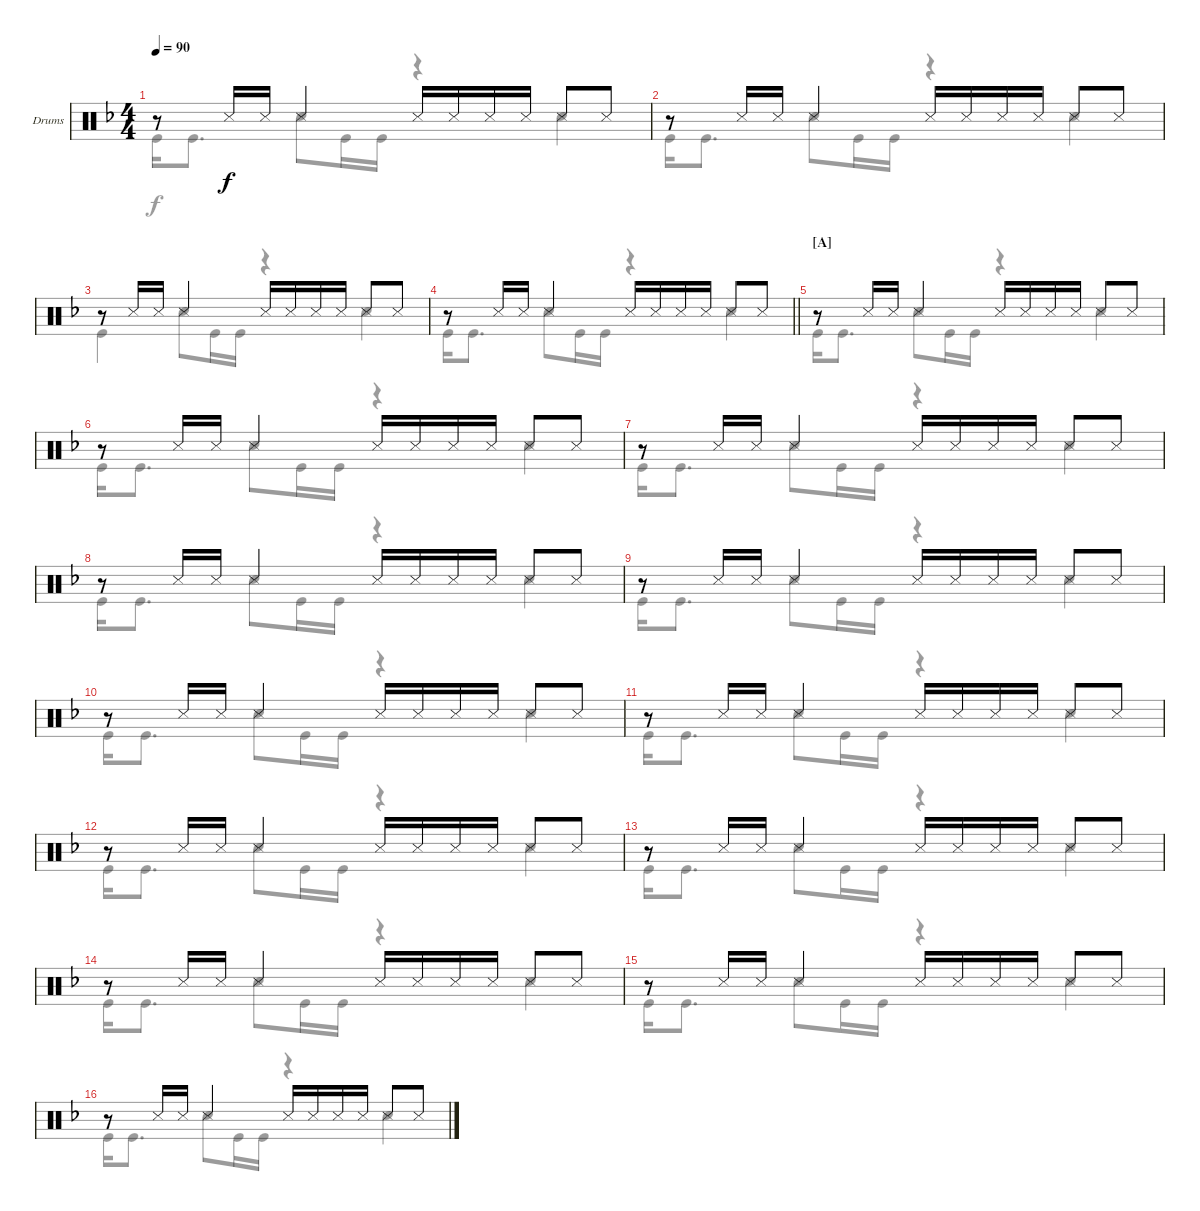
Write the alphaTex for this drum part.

\bracketExtendMode groupsimilarinstruments
\firstSystemTrackNameOrientation horizontal
\otherSystemsTrackNameOrientation horizontal
\track ("Drumkit" "Drums") {instrument percussion}
\staff {score}
\articulation defaults
\voice
\ts (4 4)
\tempo 90
\clef neutral
\ks f
r.8{dy f} "Snare (side stick) 3".16 "Snare (side stick) 3".16 "Snare (side stick) 3".4 "Snare (side stick) 3".16 "Snare (side stick) 3".16 "Snare (side stick) 3".16 "Snare (side stick) 3".16 "Snare (side stick) 3".8 "Snare (side stick) 3".8 |
r.8 "Snare (side stick) 3".16 "Snare (side stick) 3".16 "Snare (side stick) 3".4 "Snare (side stick) 3".16 "Snare (side stick) 3".16 "Snare (side stick) 3".16 "Snare (side stick) 3".16 "Snare (side stick) 3".8 "Snare (side stick) 3".8 |
r.8 "Snare (side stick) 3".16 "Snare (side stick) 3".16 "Snare (side stick) 3".4 "Snare (side stick) 3".16 "Snare (side stick) 3".16 "Snare (side stick) 3".16 "Snare (side stick) 3".16 "Snare (side stick) 3".8 "Snare (side stick) 3".8 |
\barLineRight lightlight
r.8 "Snare (side stick) 3".16 "Snare (side stick) 3".16 "Snare (side stick) 3".4 "Snare (side stick) 3".16 "Snare (side stick) 3".16 "Snare (side stick) 3".16 "Snare (side stick) 3".16 "Snare (side stick) 3".8 "Snare (side stick) 3".8 |
\section ("A" "")
r.8 "Snare (side stick) 3".16 "Snare (side stick) 3".16 "Snare (side stick) 3".4 "Snare (side stick) 3".16 "Snare (side stick) 3".16 "Snare (side stick) 3".16 "Snare (side stick) 3".16 "Snare (side stick) 3".8 "Snare (side stick) 3".8 |
r.8 "Snare (side stick) 3".16 "Snare (side stick) 3".16 "Snare (side stick) 3".4 "Snare (side stick) 3".16 "Snare (side stick) 3".16 "Snare (side stick) 3".16 "Snare (side stick) 3".16 "Snare (side stick) 3".8 "Snare (side stick) 3".8 |
r.8 "Snare (side stick) 3".16 "Snare (side stick) 3".16 "Snare (side stick) 3".4 "Snare (side stick) 3".16 "Snare (side stick) 3".16 "Snare (side stick) 3".16 "Snare (side stick) 3".16 "Snare (side stick) 3".8 "Snare (side stick) 3".8 |
r.8 "Snare (side stick) 3".16 "Snare (side stick) 3".16 "Snare (side stick) 3".4 "Snare (side stick) 3".16 "Snare (side stick) 3".16 "Snare (side stick) 3".16 "Snare (side stick) 3".16 "Snare (side stick) 3".8 "Snare (side stick) 3".8 |
r.8 "Snare (side stick) 3".16 "Snare (side stick) 3".16 "Snare (side stick) 3".4 "Snare (side stick) 3".16 "Snare (side stick) 3".16 "Snare (side stick) 3".16 "Snare (side stick) 3".16 "Snare (side stick) 3".8 "Snare (side stick) 3".8 |
r.8 "Snare (side stick) 3".16 "Snare (side stick) 3".16 "Snare (side stick) 3".4 "Snare (side stick) 3".16 "Snare (side stick) 3".16 "Snare (side stick) 3".16 "Snare (side stick) 3".16 "Snare (side stick) 3".8 "Snare (side stick) 3".8 |
r.8 "Snare (side stick) 3".16 "Snare (side stick) 3".16 "Snare (side stick) 3".4 "Snare (side stick) 3".16 "Snare (side stick) 3".16 "Snare (side stick) 3".16 "Snare (side stick) 3".16 "Snare (side stick) 3".8 "Snare (side stick) 3".8 |
r.8 "Snare (side stick) 3".16 "Snare (side stick) 3".16 "Snare (side stick) 3".4 "Snare (side stick) 3".16 "Snare (side stick) 3".16 "Snare (side stick) 3".16 "Snare (side stick) 3".16 "Snare (side stick) 3".8 "Snare (side stick) 3".8 |
r.8 "Snare (side stick) 3".16 "Snare (side stick) 3".16 "Snare (side stick) 3".4 "Snare (side stick) 3".16 "Snare (side stick) 3".16 "Snare (side stick) 3".16 "Snare (side stick) 3".16 "Snare (side stick) 3".8 "Snare (side stick) 3".8 |
r.8 "Snare (side stick) 3".16 "Snare (side stick) 3".16 "Snare (side stick) 3".4 "Snare (side stick) 3".16 "Snare (side stick) 3".16 "Snare (side stick) 3".16 "Snare (side stick) 3".16 "Snare (side stick) 3".8 "Snare (side stick) 3".8 |
r.8 "Snare (side stick) 3".16 "Snare (side stick) 3".16 "Snare (side stick) 3".4 "Snare (side stick) 3".16 "Snare (side stick) 3".16 "Snare (side stick) 3".16 "Snare (side stick) 3".16 "Snare (side stick) 3".8 "Snare (side stick) 3".8 |
r.8 "Snare (side stick) 3".16 "Snare (side stick) 3".16 "Snare (side stick) 3".4 "Snare (side stick) 3".16 "Snare (side stick) 3".16 "Snare (side stick) 3".16 "Snare (side stick) 3".16 "Snare (side stick) 3".8 "Snare (side stick) 3".8
\voice
\clef neutral
\ottava regular
\simile none
\ks f "Kick (hit)".16{dy f} "Kick (hit)".8{d} "Snare (hit) 2".8 "Kick (hit)".16 "Kick (hit)".16
r.4 "Snare (hit) 2".4 |
"Kick (hit)".16 "Kick (hit)".8{d} "Snare (hit) 2".8 "Kick (hit)".16 "Kick (hit)".16 r.4 "Snare (hit) 2".4 |
"Kick (hit)".4 "Snare (hit) 2".8 "Kick (hit)".16 "Kick (hit)".16 r.4 "Snare (hit) 2".4 |
\barLineRight lightlight "Kick (hit)".16 "Kick (hit)".8{d} "Snare (hit) 2".8 "Kick (hit)".16 "Kick (hit)".16
r.4 "Snare (hit) 2".4 |
"Kick (hit)".16 "Kick (hit)".8{d} "Snare (hit) 2".8 "Kick (hit)".16 "Kick (hit)".16 r.4 "Snare (hit) 2".4 |
"Kick (hit)".16 "Kick (hit)".8{d} "Snare (hit) 2".8 "Kick (hit)".16 "Kick (hit)".16 r.4 "Snare (hit) 2".4 |
"Kick (hit)".16 "Kick (hit)".8{d} "Snare (hit) 2".8 "Kick (hit)".16 "Kick (hit)".16 r.4 "Snare (hit) 2".4 |
"Kick (hit)".16 "Kick (hit)".8{d} "Snare (hit) 2".8 "Kick (hit)".16 "Kick (hit)".16 r.4 "Snare (hit) 2".4 |
"Kick (hit)".16 "Kick (hit)".8{d} "Snare (hit) 2".8 "Kick (hit)".16 "Kick (hit)".16 r.4 "Snare (hit) 2".4 |
"Kick (hit)".16 "Kick (hit)".8{d} "Snare (hit) 2".8 "Kick (hit)".16 "Kick (hit)".16 r.4 "Snare (hit) 2".4 |
"Kick (hit)".16 "Kick (hit)".8{d} "Snare (hit) 2".8 "Kick (hit)".16 "Kick (hit)".16 r.4 "Snare (hit) 2".4 |
"Kick (hit)".16 "Kick (hit)".8{d} "Snare (hit) 2".8 "Kick (hit)".16 "Kick (hit)".16 r.4 "Snare (hit) 2".4 |
"Kick (hit)".16 "Kick (hit)".8{d} "Snare (hit) 2".8 "Kick (hit)".16 "Kick (hit)".16 r.4 "Snare (hit) 2".4 |
"Kick (hit)".16 "Kick (hit)".8{d} "Snare (hit) 2".8 "Kick (hit)".16 "Kick (hit)".16 r.4 "Snare (hit) 2".4 |
"Kick (hit)".16 "Kick (hit)".8{d} "Snare (hit) 2".8 "Kick (hit)".16 "Kick (hit)".16 r.4 "Snare (hit) 2".4 |
"Kick (hit)".16 "Kick (hit)".8{d} "Snare (hit) 2".8 "Kick (hit)".16 "Kick (hit)".16 r.4 "Snare (hit) 2".4
